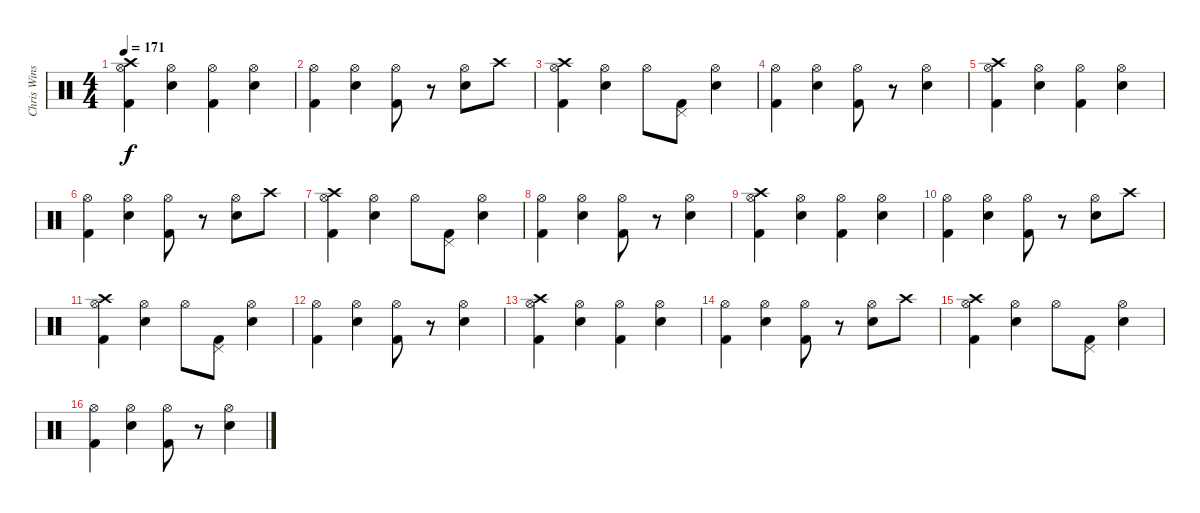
\track ("Chris Winship (Drums)" "Chris Wins") {instrument percussion}
\staff {score}
\articulation defaults
\ts (4 4)
\tempo 171
\clef neutral
\ks c
("Crash high (hit)" "Hi-Hat (open)" "Kick (hit) 2").4{dy f} ("Hi-Hat (open)" "Snare (hit) 2").4 ("Hi-Hat (open)" "Kick (hit) 2").4 ("Hi-Hat (open)" "Snare (hit) 2").4 |
("Hi-Hat (open)" "Kick (hit) 2").4 ("Hi-Hat (open)" "Snare (hit) 2").4 ("Hi-Hat (open)" "Kick (hit) 2").8 r.8 ("Hi-Hat (open)" "Snare (hit) 2").8 "Crash high (hit)".8 |
("Crash high (hit)" "Hi-Hat (open)" "Kick (hit) 2").4 ("Hi-Hat (open)" "Snare (hit) 2").4 "Hi-Hat (open)".8 ("Pedal Hi-Hat (hit)" "Kick (hit) 2").8 ("Hi-Hat (open)" "Snare (hit) 2").4 |
("Hi-Hat (open)" "Kick (hit) 2").4 ("Hi-Hat (open)" "Snare (hit) 2").4 ("Hi-Hat (open)" "Kick (hit) 2").8 r.8 ("Hi-Hat (open)" "Snare (hit) 2").4 |
("Crash high (hit)" "Hi-Hat (open)" "Kick (hit) 2").4 ("Hi-Hat (open)" "Snare (hit) 2").4 ("Hi-Hat (open)" "Kick (hit) 2").4 ("Hi-Hat (open)" "Snare (hit) 2").4 |
("Hi-Hat (open)" "Kick (hit) 2").4 ("Hi-Hat (open)" "Snare (hit) 2").4 ("Hi-Hat (open)" "Kick (hit) 2").8 r.8 ("Hi-Hat (open)" "Snare (hit) 2").8 "Crash high (hit)".8 |
("Crash high (hit)" "Hi-Hat (open)" "Kick (hit) 2").4 ("Hi-Hat (open)" "Snare (hit) 2").4 "Hi-Hat (open)".8 ("Pedal Hi-Hat (hit)" "Kick (hit) 2").8 ("Hi-Hat (open)" "Snare (hit) 2").4 |
("Hi-Hat (open)" "Kick (hit) 2").4 ("Hi-Hat (open)" "Snare (hit) 2").4 ("Hi-Hat (open)" "Kick (hit) 2").8 r.8 ("Hi-Hat (open)" "Snare (hit) 2").4 |
("Crash high (hit)" "Hi-Hat (open)" "Kick (hit) 2").4 ("Hi-Hat (open)" "Snare (hit) 2").4 ("Hi-Hat (open)" "Kick (hit) 2").4 ("Hi-Hat (open)" "Snare (hit) 2").4 |
("Hi-Hat (open)" "Kick (hit) 2").4 ("Hi-Hat (open)" "Snare (hit) 2").4 ("Hi-Hat (open)" "Kick (hit) 2").8 r.8 ("Hi-Hat (open)" "Snare (hit) 2").8 "Crash high (hit)".8 |
("Crash high (hit)" "Hi-Hat (open)" "Kick (hit) 2").4 ("Hi-Hat (open)" "Snare (hit) 2").4 "Hi-Hat (open)".8 ("Pedal Hi-Hat (hit)" "Kick (hit) 2").8 ("Hi-Hat (open)" "Snare (hit) 2").4 |
("Hi-Hat (open)" "Kick (hit) 2").4 ("Hi-Hat (open)" "Snare (hit) 2").4 ("Hi-Hat (open)" "Kick (hit) 2").8 r.8 ("Hi-Hat (open)" "Snare (hit) 2").4 |
("Crash high (hit)" "Hi-Hat (open)" "Kick (hit) 2").4 ("Hi-Hat (open)" "Snare (hit) 2").4 ("Hi-Hat (open)" "Kick (hit) 2").4 ("Hi-Hat (open)" "Snare (hit) 2").4 |
("Hi-Hat (open)" "Kick (hit) 2").4 ("Hi-Hat (open)" "Snare (hit) 2").4 ("Hi-Hat (open)" "Kick (hit) 2").8 r.8 ("Hi-Hat (open)" "Snare (hit) 2").8 "Crash high (hit)".8 |
("Crash high (hit)" "Hi-Hat (open)" "Kick (hit) 2").4 ("Hi-Hat (open)" "Snare (hit) 2").4 "Hi-Hat (open)".8 ("Pedal Hi-Hat (hit)" "Kick (hit) 2").8 ("Hi-Hat (open)" "Snare (hit) 2").4 |
("Hi-Hat (open)" "Kick (hit) 2").4 ("Hi-Hat (open)" "Snare (hit) 2").4 ("Hi-Hat (open)" "Kick (hit) 2").8 r.8 ("Hi-Hat (open)" "Snare (hit) 2").4
